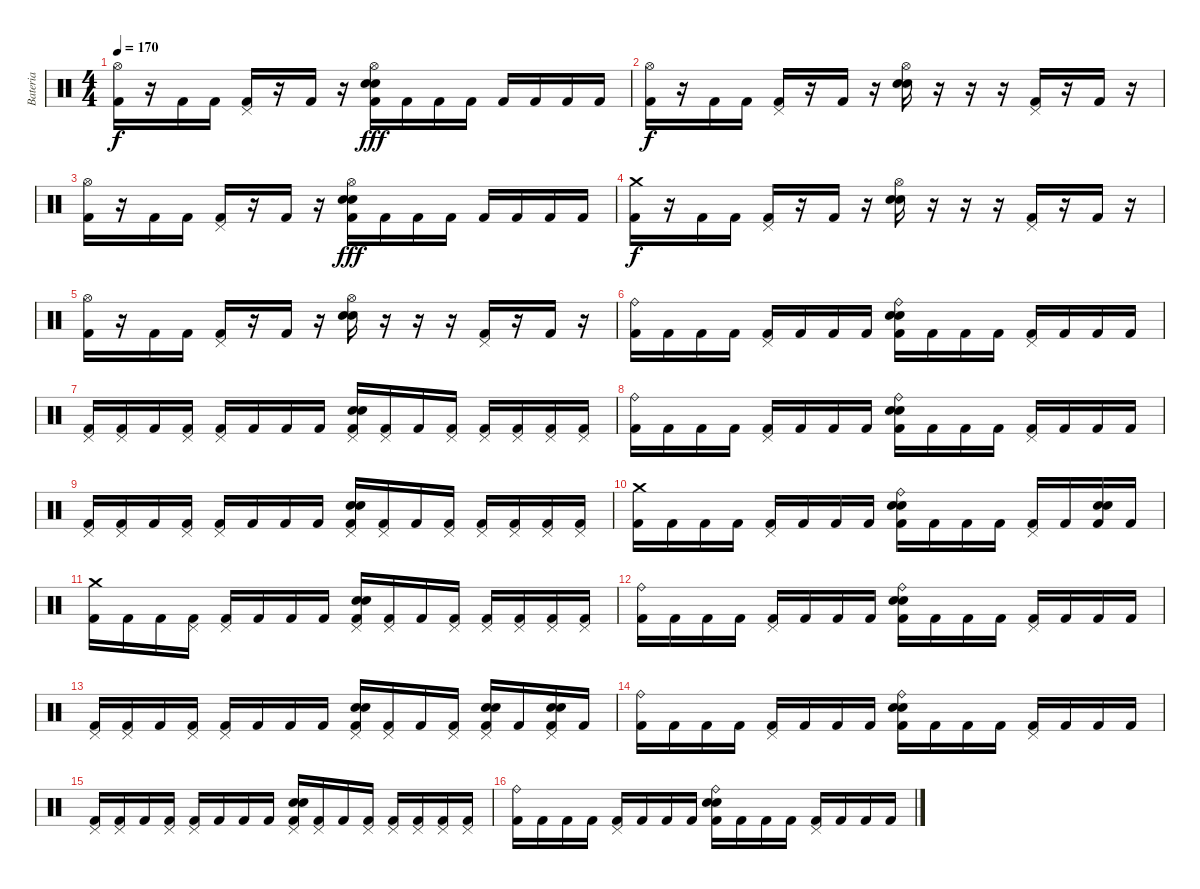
\track ("Bateria" "Bateria") {instrument percussion}
\staff {score}
\articulation defaults
\ts (4 4)
\tempo 170
\clef neutral
\ks c
("Hi-Hat (open)" "Kick (hit) 2").16{dy f} r.16 "Kick (hit) 2".16 "Kick (hit) 2".16 ("Pedal Hi-Hat (hit)" "Kick (hit) 2").16 r.16 "Kick (hit) 2".16 r.16 ("Hi-Hat (open)" "Electric Snare (hit)" "Snare (hit) 2" "Kick (hit) 2").16{dy fff} "Kick (hit) 2".16 "Kick (hit) 2".16 "Kick (hit) 2".16 "Kick (hit) 2".16 "Kick (hit) 2".16 "Kick (hit) 2".16 "Kick (hit) 2".16 |
("Hi-Hat (open)" "Kick (hit) 2").16{dy f} r.16 "Kick (hit) 2".16 "Kick (hit) 2".16 ("Pedal Hi-Hat (hit)" "Kick (hit) 2").16 r.16 "Kick (hit) 2".16 r.16 ("Hi-Hat (open)" "Electric Snare (hit)" "Snare (hit) 2").16 r.16 r.16 r.16 ("Pedal Hi-Hat (hit)" "Kick (hit) 2").16 r.16 "Kick (hit) 2".16 r.16 |
("Hi-Hat (open)" "Kick (hit) 2").16 r.16 "Kick (hit) 2".16 "Kick (hit) 2".16 ("Pedal Hi-Hat (hit)" "Kick (hit) 2").16 r.16 "Kick (hit) 2".16 r.16 ("Hi-Hat (open)" "Electric Snare (hit)" "Snare (hit) 2" "Kick (hit) 2").16{dy fff} "Kick (hit) 2".16 "Kick (hit) 2".16 "Kick (hit) 2".16 "Kick (hit) 2".16 "Kick (hit) 2".16 "Kick (hit) 2".16 "Kick (hit) 2".16 |
("Crash medium (hit)" "Kick (hit) 2").16{dy f} r.16 "Kick (hit) 2".16 "Kick (hit) 2".16 ("Pedal Hi-Hat (hit)" "Kick (hit) 2").16 r.16 "Kick (hit) 2".16 r.16 ("Hi-Hat (open)" "Electric Snare (hit)" "Snare (hit) 2").16 r.16 r.16 r.16 ("Pedal Hi-Hat (hit)" "Kick (hit) 2").16 r.16 "Kick (hit) 2".16 r.16 |
("Hi-Hat (open)" "Kick (hit) 2").16 r.16 "Kick (hit) 2".16 "Kick (hit) 2".16 ("Pedal Hi-Hat (hit)" "Kick (hit) 2").16 r.16 "Kick (hit) 2".16 r.16 ("Hi-Hat (open)" "Electric Snare (hit)" "Snare (hit) 2").16 r.16 r.16 r.16 ("Pedal Hi-Hat (hit)" "Kick (hit) 2").16 r.16 "Kick (hit) 2".16 r.16 |
("Ride (bell)" "Kick (hit) 2").16 "Kick (hit) 2".16 "Kick (hit) 2".16 "Kick (hit) 2".16 ("Pedal Hi-Hat (hit)" "Kick (hit) 2").16 "Kick (hit) 2".16 "Kick (hit) 2".16 "Kick (hit) 2".16 ("Ride (bell)" "Electric Snare (hit)" "Snare (hit) 2" "Kick (hit) 2").16 "Kick (hit) 2".16 "Kick (hit) 2".16 "Kick (hit) 2".16 ("Pedal Hi-Hat (hit)" "Kick (hit) 2").16 "Kick (hit) 2".16 "Kick (hit) 2".16 "Kick (hit) 2".16 |
("Pedal Hi-Hat (hit)" "Kick (hit) 2").16 ("Pedal Hi-Hat (hit)" "Kick (hit) 2").16 "Kick (hit) 2".16 ("Pedal Hi-Hat (hit)" "Kick (hit) 2").16 ("Pedal Hi-Hat (hit)" "Kick (hit) 2").16 "Kick (hit) 2".16 "Kick (hit) 2".16 "Kick (hit) 2".16 ("Pedal Hi-Hat (hit)" "Electric Snare (hit)" "Snare (hit) 2" "Kick (hit) 2").16 ("Pedal Hi-Hat (hit)" "Kick (hit) 2").16 "Kick (hit) 2".16 ("Pedal Hi-Hat (hit)" "Kick (hit) 2").16 ("Pedal Hi-Hat (hit)" "Kick (hit) 2").16 ("Pedal Hi-Hat (hit)" "Kick (hit) 2").16 ("Pedal Hi-Hat (hit)" "Kick (hit) 2").16 ("Pedal Hi-Hat (hit)" "Kick (hit) 2").16 |
("Ride (bell)" "Kick (hit) 2").16 "Kick (hit) 2".16 "Kick (hit) 2".16 "Kick (hit) 2".16 ("Pedal Hi-Hat (hit)" "Kick (hit) 2").16 "Kick (hit) 2".16 "Kick (hit) 2".16 "Kick (hit) 2".16 ("Ride (bell)" "Electric Snare (hit)" "Snare (hit) 2" "Kick (hit) 2").16 "Kick (hit) 2".16 "Kick (hit) 2".16 "Kick (hit) 2".16 ("Pedal Hi-Hat (hit)" "Kick (hit) 2").16 "Kick (hit) 2".16 "Kick (hit) 2".16 "Kick (hit) 2".16 |
("Pedal Hi-Hat (hit)" "Kick (hit) 2").16 ("Pedal Hi-Hat (hit)" "Kick (hit) 2").16 "Kick (hit) 2".16 ("Pedal Hi-Hat (hit)" "Kick (hit) 2").16 ("Pedal Hi-Hat (hit)" "Kick (hit) 2").16 "Kick (hit) 2".16 "Kick (hit) 2".16 "Kick (hit) 2".16 ("Pedal Hi-Hat (hit)" "Electric Snare (hit)" "Snare (hit) 2" "Kick (hit) 2").16 ("Pedal Hi-Hat (hit)" "Kick (hit) 2").16 "Kick (hit) 2".16 ("Pedal Hi-Hat (hit)" "Kick (hit) 2").16 ("Pedal Hi-Hat (hit)" "Kick (hit) 2").16 ("Pedal Hi-Hat (hit)" "Kick (hit) 2").16 ("Pedal Hi-Hat (hit)" "Kick (hit) 2").16 ("Pedal Hi-Hat (hit)" "Kick (hit) 2").16 |
("Crash medium (hit)" "Kick (hit) 2").16 "Kick (hit) 2".16 "Kick (hit) 2".16 "Kick (hit) 2".16 ("Pedal Hi-Hat (hit)" "Kick (hit) 2").16 "Kick (hit) 2".16 "Kick (hit) 2".16 "Kick (hit) 2".16 ("Ride (bell)" "Electric Snare (hit)" "Snare (hit) 2" "Kick (hit) 2").16 "Kick (hit) 2".16 "Kick (hit) 2".16 "Kick (hit) 2".16 ("Pedal Hi-Hat (hit)" "Kick (hit) 2").16 "Kick (hit) 2".16 ("Electric Snare (hit)" "Snare (hit) 2" "Kick (hit) 2").16 "Kick (hit) 2".16 |
("Crash medium (hit)" "Kick (hit) 2").16 "Kick (hit) 2".16 "Kick (hit) 2".16 ("Pedal Hi-Hat (hit)" "Kick (hit) 2").16 ("Pedal Hi-Hat (hit)" "Kick (hit) 2").16 "Kick (hit) 2".16 "Kick (hit) 2".16 "Kick (hit) 2".16 ("Pedal Hi-Hat (hit)" "Electric Snare (hit)" "Snare (hit) 2" "Kick (hit) 2").16 ("Pedal Hi-Hat (hit)" "Kick (hit) 2").16 "Kick (hit) 2".16 ("Pedal Hi-Hat (hit)" "Kick (hit) 2").16 ("Pedal Hi-Hat (hit)" "Kick (hit) 2").16 ("Pedal Hi-Hat (hit)" "Kick (hit) 2").16 ("Pedal Hi-Hat (hit)" "Kick (hit) 2").16 ("Pedal Hi-Hat (hit)" "Kick (hit) 2").16 |
("Ride (bell)" "Kick (hit) 2").16 "Kick (hit) 2".16 "Kick (hit) 2".16 "Kick (hit) 2".16 ("Pedal Hi-Hat (hit)" "Kick (hit) 2").16 "Kick (hit) 2".16 "Kick (hit) 2".16 "Kick (hit) 2".16 ("Ride (bell)" "Electric Snare (hit)" "Snare (hit) 2" "Kick (hit) 2").16 "Kick (hit) 2".16 "Kick (hit) 2".16 "Kick (hit) 2".16 ("Pedal Hi-Hat (hit)" "Kick (hit) 2").16 "Kick (hit) 2".16 "Kick (hit) 2".16 "Kick (hit) 2".16 |
("Pedal Hi-Hat (hit)" "Kick (hit) 2").16 ("Pedal Hi-Hat (hit)" "Kick (hit) 2").16 "Kick (hit) 2".16 ("Pedal Hi-Hat (hit)" "Kick (hit) 2").16 ("Pedal Hi-Hat (hit)" "Kick (hit) 2").16 "Kick (hit) 2".16 "Kick (hit) 2".16 "Kick (hit) 2".16 ("Pedal Hi-Hat (hit)" "Electric Snare (hit)" "Snare (hit) 2" "Kick (hit) 2").16 ("Pedal Hi-Hat (hit)" "Kick (hit) 2").16 "Kick (hit) 2".16 ("Pedal Hi-Hat (hit)" "Kick (hit) 2").16 ("Pedal Hi-Hat (hit)" "Electric Snare (hit)" "Snare (hit) 2" "Kick (hit) 2").16 "Kick (hit) 2".16 ("Pedal Hi-Hat (hit)" "Electric Snare (hit)" "Snare (hit) 2" "Kick (hit) 2").16 "Kick (hit) 2".16 |
("Ride (bell)" "Kick (hit) 2").16 "Kick (hit) 2".16 "Kick (hit) 2".16 "Kick (hit) 2".16 ("Pedal Hi-Hat (hit)" "Kick (hit) 2").16 "Kick (hit) 2".16 "Kick (hit) 2".16 "Kick (hit) 2".16 ("Ride (bell)" "Electric Snare (hit)" "Snare (hit) 2" "Kick (hit) 2").16 "Kick (hit) 2".16 "Kick (hit) 2".16 "Kick (hit) 2".16 ("Pedal Hi-Hat (hit)" "Kick (hit) 2").16 "Kick (hit) 2".16 "Kick (hit) 2".16 "Kick (hit) 2".16 |
("Pedal Hi-Hat (hit)" "Kick (hit) 2").16 ("Pedal Hi-Hat (hit)" "Kick (hit) 2").16 "Kick (hit) 2".16 ("Pedal Hi-Hat (hit)" "Kick (hit) 2").16 ("Pedal Hi-Hat (hit)" "Kick (hit) 2").16 "Kick (hit) 2".16 "Kick (hit) 2".16 "Kick (hit) 2".16 ("Pedal Hi-Hat (hit)" "Electric Snare (hit)" "Snare (hit) 2" "Kick (hit) 2").16 ("Pedal Hi-Hat (hit)" "Kick (hit) 2").16 "Kick (hit) 2".16 ("Pedal Hi-Hat (hit)" "Kick (hit) 2").16 ("Pedal Hi-Hat (hit)" "Kick (hit) 2").16 ("Pedal Hi-Hat (hit)" "Kick (hit) 2").16 ("Pedal Hi-Hat (hit)" "Kick (hit) 2").16 ("Pedal Hi-Hat (hit)" "Kick (hit) 2").16 |
("Ride (bell)" "Kick (hit) 2").16 "Kick (hit) 2".16 "Kick (hit) 2".16 "Kick (hit) 2".16 ("Pedal Hi-Hat (hit)" "Kick (hit) 2").16 "Kick (hit) 2".16 "Kick (hit) 2".16 "Kick (hit) 2".16 ("Ride (bell)" "Electric Snare (hit)" "Snare (hit) 2" "Kick (hit) 2").16 "Kick (hit) 2".16 "Kick (hit) 2".16 "Kick (hit) 2".16 ("Pedal Hi-Hat (hit)" "Kick (hit) 2").16 "Kick (hit) 2".16 "Kick (hit) 2".16 "Kick (hit) 2".16
